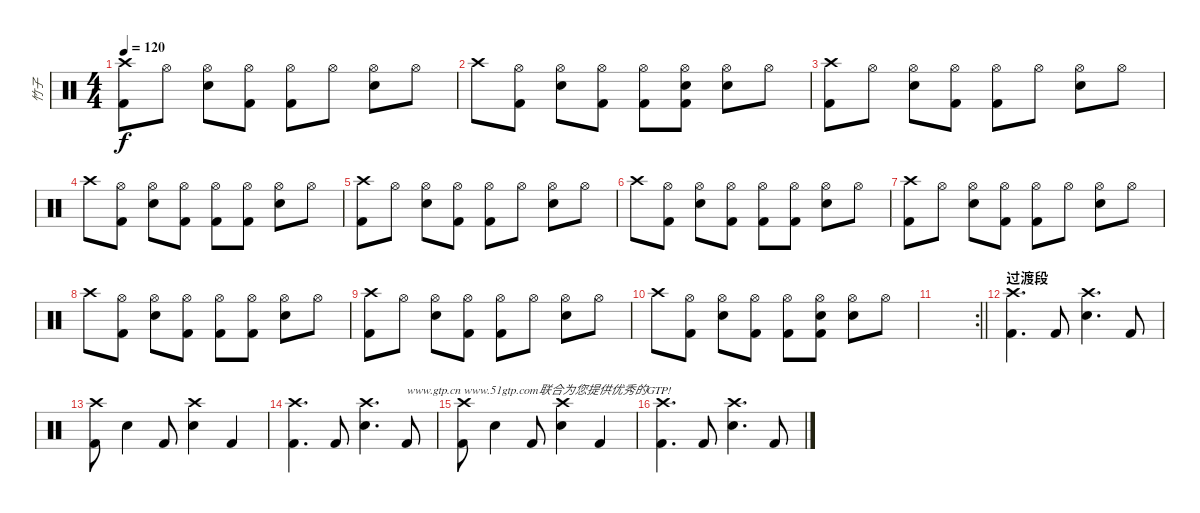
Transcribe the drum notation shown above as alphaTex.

\track ("竹子" "竹子") {instrument percussion}
\staff {score}
\articulation defaults
\ts (4 4)
\tempo 120
\clef neutral
\ks c
("Crash high (hit)" "Kick (hit) 2").8{dy f} "Hi-Hat (open)".8 ("Hi-Hat (open)" "Electric Snare (hit)").8 ("Hi-Hat (open)" "Kick (hit) 2").8 ("Hi-Hat (open)" "Kick (hit) 2").8 "Hi-Hat (open)".8 ("Hi-Hat (open)" "Electric Snare (hit)").8 "Hi-Hat (open)".8 |
"Crash high (hit)".8 ("Hi-Hat (open)" "Kick (hit) 2").8 ("Hi-Hat (open)" "Electric Snare (hit)").8 ("Hi-Hat (open)" "Kick (hit) 2").8 ("Hi-Hat (open)" "Kick (hit) 2").8 ("Hi-Hat (open)" "Electric Snare (hit)" "Kick (hit) 2").8 ("Hi-Hat (open)" "Electric Snare (hit)").8 "Hi-Hat (open)".8 |
("Crash high (hit)" "Kick (hit) 2").8 "Hi-Hat (open)".8 ("Hi-Hat (open)" "Electric Snare (hit)").8 ("Hi-Hat (open)" "Kick (hit) 2").8 ("Hi-Hat (open)" "Kick (hit) 2").8 "Hi-Hat (open)".8 ("Hi-Hat (open)" "Electric Snare (hit)").8 "Hi-Hat (open)".8 |
"Crash high (hit)".8 ("Hi-Hat (open)" "Kick (hit) 2").8 ("Hi-Hat (open)" "Electric Snare (hit)").8 ("Hi-Hat (open)" "Kick (hit) 2").8 ("Hi-Hat (open)" "Kick (hit) 2").8 ("Hi-Hat (open)" "Kick (hit) 2").8 ("Hi-Hat (open)" "Electric Snare (hit)").8 "Hi-Hat (open)".8 |
("Crash high (hit)" "Kick (hit) 2").8 "Hi-Hat (open)".8 ("Hi-Hat (open)" "Electric Snare (hit)").8 ("Hi-Hat (open)" "Kick (hit) 2").8 ("Hi-Hat (open)" "Kick (hit) 2").8 "Hi-Hat (open)".8 ("Hi-Hat (open)" "Electric Snare (hit)").8 "Hi-Hat (open)".8 |
"Crash high (hit)".8 ("Hi-Hat (open)" "Kick (hit) 2").8 ("Hi-Hat (open)" "Electric Snare (hit)").8 ("Hi-Hat (open)" "Kick (hit) 2").8 ("Hi-Hat (open)" "Kick (hit) 2").8 ("Hi-Hat (open)" "Kick (hit) 2").8 ("Hi-Hat (open)" "Electric Snare (hit)").8 "Hi-Hat (open)".8 |
("Crash high (hit)" "Kick (hit) 2").8 "Hi-Hat (open)".8 ("Hi-Hat (open)" "Electric Snare (hit)").8 ("Hi-Hat (open)" "Kick (hit) 2").8 ("Hi-Hat (open)" "Kick (hit) 2").8 "Hi-Hat (open)".8 ("Hi-Hat (open)" "Electric Snare (hit)").8 "Hi-Hat (open)".8 |
"Crash high (hit)".8 ("Hi-Hat (open)" "Kick (hit) 2").8 ("Hi-Hat (open)" "Electric Snare (hit)").8 ("Hi-Hat (open)" "Kick (hit) 2").8 ("Hi-Hat (open)" "Kick (hit) 2").8 ("Hi-Hat (open)" "Kick (hit) 2").8 ("Hi-Hat (open)" "Electric Snare (hit)").8 "Hi-Hat (open)".8 |
("Crash high (hit)" "Kick (hit) 2").8 "Hi-Hat (open)".8 ("Hi-Hat (open)" "Electric Snare (hit)").8 ("Hi-Hat (open)" "Kick (hit) 2").8 ("Hi-Hat (open)" "Kick (hit) 2").8 "Hi-Hat (open)".8 ("Hi-Hat (open)" "Electric Snare (hit)").8 "Hi-Hat (open)".8 |
"Crash high (hit)".8 ("Hi-Hat (open)" "Kick (hit) 2").8 ("Hi-Hat (open)" "Electric Snare (hit)").8 ("Hi-Hat (open)" "Kick (hit) 2").8 ("Hi-Hat (open)" "Kick (hit) 2").8 ("Hi-Hat (open)" "Electric Snare (hit)" "Kick (hit) 2").8 ("Hi-Hat (open)" "Electric Snare (hit)").8 "Hi-Hat (open)".8 |
\rc 2
\barLineRight lightlight
|
\section ("" "过渡段")
("Crash high (hit)" "Kick (hit) 2").4{d} "Kick (hit) 2".8 ("Crash high (hit)" "Electric Snare (hit)").4{d} "Kick (hit) 2".8 |
("Crash high (hit)" "Kick (hit) 2").8 "Electric Snare (hit)".4 "Kick (hit) 2".8 ("Crash high (hit)" "Electric Snare (hit)").4 "Kick (hit) 2".4 |
("Crash high (hit)" "Kick (hit) 2").4{d} "Kick (hit) 2".8 ("Crash high (hit)" "Electric Snare (hit)").4{d} "Kick (hit) 2".8{txt "www.gtp.cn www.51gtp.com联合为您提供优秀的GTP!"} |
("Crash high (hit)" "Kick (hit) 2").8 "Electric Snare (hit)".4 "Kick (hit) 2".8 ("Crash high (hit)" "Electric Snare (hit)").4 "Kick (hit) 2".4 |
("Crash high (hit)" "Kick (hit) 2").4{d} "Kick (hit) 2".8 ("Crash high (hit)" "Electric Snare (hit)").4{d} "Kick (hit) 2".8
